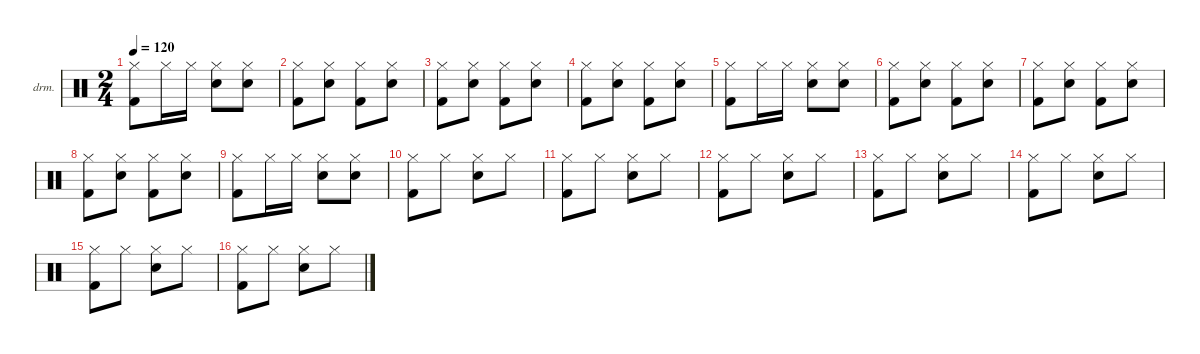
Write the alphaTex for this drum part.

\hideDynamics
\bracketExtendMode nobrackets
\firstSystemTrackNameOrientation horizontal
\otherSystemsTrackNameOrientation horizontal
\track ("韩子钰" "drm.") {instrument percussion}
\staff {score}
\articulation defaults
\ts (2 4)
\tempo 120
\clef neutral
\ks c
("Hi-Hat (closed)" "Kick (hit) 2").8{dy f} "Hi-Hat (closed)".16 "Hi-Hat (closed)".16 ("Hi-Hat (closed)" "Snare (hit) 2").8 ("Hi-Hat (closed)" "Snare (hit) 2").8 |
("Hi-Hat (closed)" "Kick (hit) 2").8 ("Hi-Hat (closed)" "Snare (hit) 2").8 ("Hi-Hat (closed)" "Kick (hit) 2").8 ("Hi-Hat (closed)" "Snare (hit) 2").8 |
("Hi-Hat (closed)" "Kick (hit) 2").8 ("Hi-Hat (closed)" "Snare (hit) 2").8 ("Hi-Hat (closed)" "Kick (hit) 2").8 ("Hi-Hat (closed)" "Snare (hit) 2").8 |
("Hi-Hat (closed)" "Kick (hit) 2").8 ("Hi-Hat (closed)" "Snare (hit) 2").8 ("Hi-Hat (closed)" "Kick (hit) 2").8 ("Hi-Hat (closed)" "Snare (hit) 2").8 |
("Hi-Hat (closed)" "Kick (hit) 2").8 "Hi-Hat (closed)".16 "Hi-Hat (closed)".16 ("Hi-Hat (closed)" "Snare (hit) 2").8 ("Hi-Hat (closed)" "Snare (hit) 2").8 |
("Hi-Hat (closed)" "Kick (hit) 2").8 ("Hi-Hat (closed)" "Snare (hit) 2").8 ("Hi-Hat (closed)" "Kick (hit) 2").8 ("Hi-Hat (closed)" "Snare (hit) 2").8 |
("Hi-Hat (closed)" "Kick (hit) 2").8 ("Hi-Hat (closed)" "Snare (hit) 2").8 ("Hi-Hat (closed)" "Kick (hit) 2").8 ("Hi-Hat (closed)" "Snare (hit) 2").8 |
("Hi-Hat (closed)" "Kick (hit) 2").8 ("Hi-Hat (closed)" "Snare (hit) 2").8 ("Hi-Hat (closed)" "Kick (hit) 2").8 ("Hi-Hat (closed)" "Snare (hit) 2").8 |
("Hi-Hat (closed)" "Kick (hit) 2").8 "Hi-Hat (closed)".16 "Hi-Hat (closed)".16 ("Hi-Hat (closed)" "Snare (hit) 2").8 ("Hi-Hat (closed)" "Snare (hit) 2").8 |
("Hi-Hat (closed)" "Kick (hit) 2").8 "Hi-Hat (closed)".8 ("Hi-Hat (closed)" "Snare (hit) 2").8 "Hi-Hat (closed)".8 |
("Hi-Hat (closed)" "Kick (hit) 2").8 "Hi-Hat (closed)".8 ("Hi-Hat (closed)" "Snare (hit) 2").8 "Hi-Hat (closed)".8 |
("Hi-Hat (closed)" "Kick (hit) 2").8 "Hi-Hat (closed)".8 ("Hi-Hat (closed)" "Snare (hit) 2").8 "Hi-Hat (closed)".8 |
("Hi-Hat (closed)" "Kick (hit) 2").8 "Hi-Hat (closed)".8 ("Hi-Hat (closed)" "Snare (hit) 2").8 "Hi-Hat (closed)".8 |
("Hi-Hat (closed)" "Kick (hit) 2").8 "Hi-Hat (closed)".8 ("Hi-Hat (closed)" "Snare (hit) 2").8 "Hi-Hat (closed)".8 |
("Hi-Hat (closed)" "Kick (hit) 2").8 "Hi-Hat (closed)".8 ("Hi-Hat (closed)" "Snare (hit) 2").8 "Hi-Hat (closed)".8 |
("Hi-Hat (closed)" "Kick (hit) 2").8 "Hi-Hat (closed)".8 ("Hi-Hat (closed)" "Snare (hit) 2").8 "Hi-Hat (closed)".8
